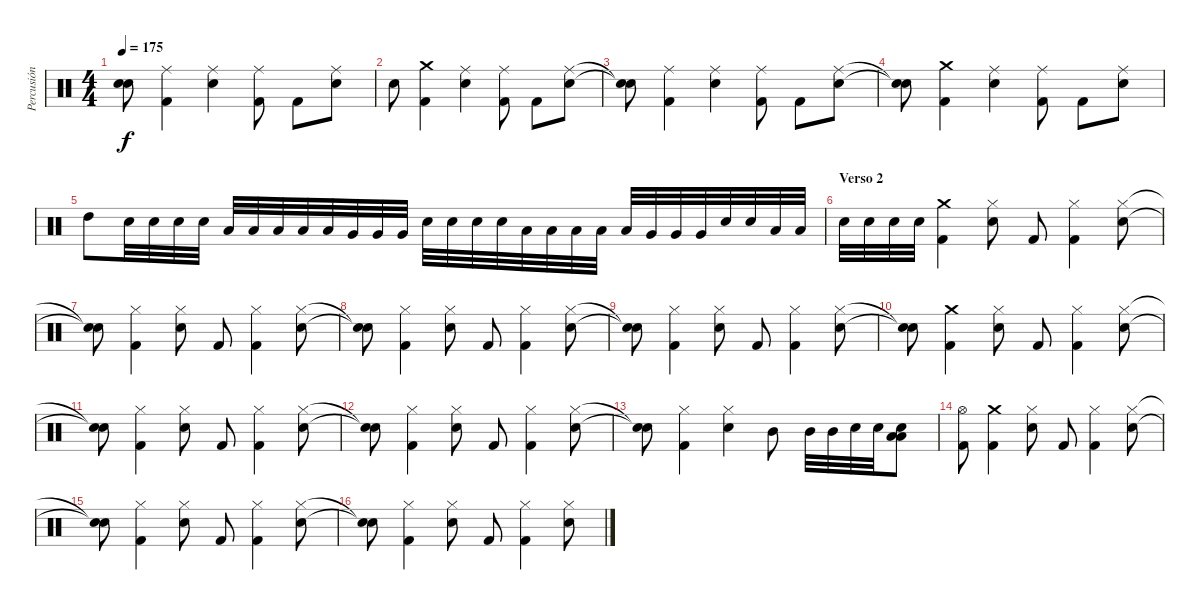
\track ("Percusión" "Percusión") {instrument percussion}
\staff {score}
\articulation defaults
\ts (4 4)
\tempo 175
\clef neutral
\ks c
("Snare (hit)"{t} "Snare (hit) 2"{t}).8{dy f} ("Ride (middle)" "Kick (hit) 2").4 ("Snare (hit) 2" "Ride (middle)").4 ("Ride (middle)" "Kick (hit) 2").8 "Kick (hit) 2".8 ("Ride (middle)" "Snare (hit) 2").8 |
"Snare (hit) 2".8 ("Crash medium (hit)" "Kick (hit) 2").4 ("Snare (hit) 2" "Ride (middle)").4 ("Ride (middle)" "Kick (hit) 2").8 "Kick (hit) 2".8 ("Ride (middle)" "Snare (hit) 2").8 |
("Snare (hit)"{t} "Snare (hit) 2"{t}).8 ("Ride (middle)" "Kick (hit) 2").4 ("Snare (hit) 2" "Ride (middle)").4 ("Ride (middle)" "Kick (hit) 2").8 "Kick (hit) 2".8 ("Ride (middle)" "Snare (hit) 2").8 |
("Snare (hit)"{t} "Snare (hit) 2"{t}).8 ("Crash medium (hit)" "Kick (hit) 2").4 ("Snare (hit) 2" "Ride (middle)").4 ("Ride (middle)" "Kick (hit) 2").8 "Kick (hit) 2".8 ("Ride (middle)" "Snare (hit) 2").8 |
"High Tom (hit)".8 "Snare (hit) 2".32 "Snare (hit) 2".32 "Snare (hit) 2".32 "Snare (hit) 2".32 "Low Tom (hit)".32 "Low Tom (hit)".32 "Low Tom (hit)".32 "Low Tom (hit)".32 "Low Tom (hit)".32 "Very Low Tom (hit)".32 "Very Low Tom (hit)".32 "Very Low Tom (hit)".32 "Snare (hit) 2".32 "Snare (hit) 2".32 "Snare (hit) 2".32 "Snare (hit) 2".32 "Low Tom (hit)".32 "Low Tom (hit)".32 "Low Tom (hit)".32 "Low Tom (hit)".32 "Low Tom (hit)".32 "Very Low Tom (hit)".32 "Very Low Tom (hit)".32 "Very Low Tom (hit)".32 "Snare (hit) 2".32 "Snare (hit) 2".32 "Low Tom (hit)".32 "Low Tom (hit)".32 |
\section ("" "Verso 2")
"Snare (hit) 2".32 "Snare (hit) 2".32 "Snare (hit) 2".32 "Snare (hit) 2".32 ("Crash medium (hit)" "Kick (hit) 2").4 ("Snare (hit) 2" "Hi-Hat (closed)").8 "Kick (hit) 2".8 ("Kick (hit) 2" "Hi-Hat (closed)").4 ("Snare (hit) 2" "Hi-Hat (closed)").8 |
("Snare (hit)"{t} "Snare (hit)"{t}).8 ("Hi-Hat (closed)" "Kick (hit) 2").4 ("Snare (hit) 2" "Hi-Hat (closed)").8 "Kick (hit) 2".8 ("Kick (hit) 2" "Hi-Hat (closed)").4 ("Snare (hit) 2" "Hi-Hat (closed)").8 |
("Snare (hit)"{t} "Snare (hit)"{t}).8 ("Hi-Hat (closed)" "Kick (hit) 2").4 ("Snare (hit) 2" "Hi-Hat (closed)").8 "Kick (hit) 2".8 ("Kick (hit) 2" "Hi-Hat (closed)").4 ("Snare (hit) 2" "Hi-Hat (closed)").8 |
("Snare (hit)"{t} "Snare (hit)"{t}).8 ("Hi-Hat (closed)" "Kick (hit) 2").4 ("Snare (hit) 2" "Hi-Hat (closed)").8 "Kick (hit) 2".8 ("Kick (hit) 2" "Hi-Hat (closed)").4 ("Snare (hit) 2" "Hi-Hat (closed)").8 |
("Snare (hit)"{t} "Snare (hit)"{t}).8 ("Crash medium (hit)" "Kick (hit) 2").4 ("Snare (hit) 2" "Hi-Hat (closed)").8 "Kick (hit) 2".8 ("Kick (hit) 2" "Hi-Hat (closed)").4 ("Snare (hit) 2" "Hi-Hat (closed)").8 |
("Snare (hit)"{t} "Snare (hit)"{t}).8 ("Hi-Hat (closed)" "Kick (hit) 2").4 ("Snare (hit) 2" "Hi-Hat (closed)").8 "Kick (hit) 2".8 ("Kick (hit) 2" "Hi-Hat (closed)").4 ("Snare (hit) 2" "Hi-Hat (closed)").8 |
("Snare (hit)"{t} "Snare (hit)"{t}).8 ("Hi-Hat (closed)" "Kick (hit) 2").4 ("Snare (hit) 2" "Hi-Hat (closed)").8 "Kick (hit) 2".8 ("Kick (hit) 2" "Hi-Hat (closed)").4 ("Snare (hit) 2" "Hi-Hat (closed)").8 |
("Snare (hit)"{t} "Snare (hit)"{t}).8 ("Hi-Hat (closed)" "Kick (hit) 2").4 ("Snare (hit) 2" "Hi-Hat (closed)").4 "Mid Tom (hit)".8 "Mid Tom (hit)".32 "Mid Tom (hit)".32 "Snare (hit) 2".32 "Snare (hit) 2".32 ("Low Tom (hit)" "Low Floor Tom (hit)" "Snare (hit) 2").8 |
("Hi-Hat (open)" "Kick (hit) 2").8 ("Crash medium (hit)" "Kick (hit) 2").4 ("Snare (hit) 2" "Hi-Hat (closed)").8 "Kick (hit) 2".8 ("Kick (hit) 2" "Hi-Hat (closed)").4 ("Snare (hit) 2" "Hi-Hat (closed)").8 |
("Snare (hit)"{t} "Snare (hit)"{t}).8 ("Hi-Hat (closed)" "Kick (hit) 2").4 ("Snare (hit) 2" "Hi-Hat (closed)").8 "Kick (hit) 2".8 ("Kick (hit) 2" "Hi-Hat (closed)").4 ("Snare (hit) 2" "Hi-Hat (closed)").8 |
("Snare (hit)"{t} "Snare (hit)"{t}).8 ("Hi-Hat (closed)" "Kick (hit) 2").4 ("Snare (hit) 2" "Hi-Hat (closed)").8 "Kick (hit) 2".8 ("Kick (hit) 2" "Hi-Hat (closed)").4 ("Snare (hit) 2" "Hi-Hat (closed)").8
